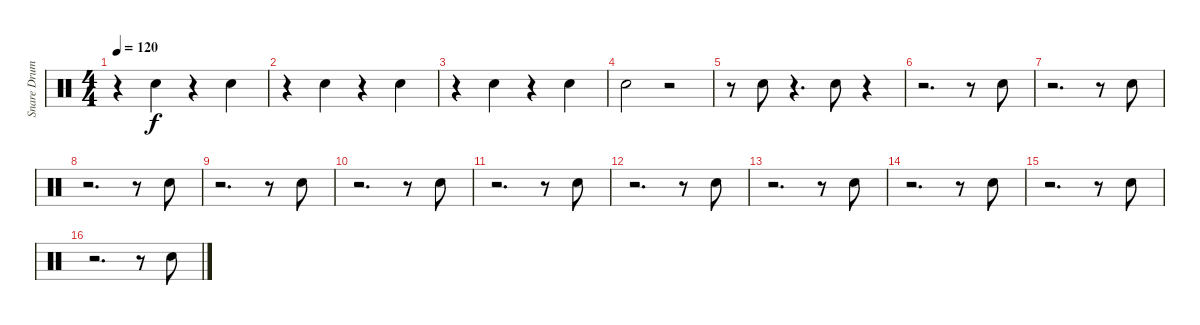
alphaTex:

\track ("Snare Drum" "Snare Drum") {instrument percussion}
\staff {score}
\articulation defaults
\ts (4 4)
\tempo 120
\clef neutral
\ks c
r.4{dy f} "Snare (hit) 2".4 r.4 "Snare (hit) 2".4 |
r.4 "Snare (hit) 2".4 r.4 "Snare (hit) 2".4 |
r.4 "Snare (hit) 2".4 r.4 "Snare (hit) 2".4 |
"Snare (hit) 2".2 r.2 |
r.8 "Snare (hit) 2".8 r.4{d} "Snare (hit) 2".8 r.4 |
r.2{d} r.8 "Snare (hit) 2".8 |
r.2{d} r.8 "Snare (hit) 2".8 |
r.2{d} r.8 "Snare (hit) 2".8 |
r.2{d} r.8 "Snare (hit) 2".8 |
r.2{d} r.8 "Snare (hit) 2".8 |
r.2{d} r.8 "Snare (hit) 2".8 |
r.2{d} r.8 "Snare (hit) 2".8 |
r.2{d} r.8 "Snare (hit) 2".8 |
r.2{d} r.8 "Snare (hit) 2".8 |
r.2{d} r.8 "Snare (hit) 2".8 |
r.2{d} r.8 "Snare (hit) 2".8
